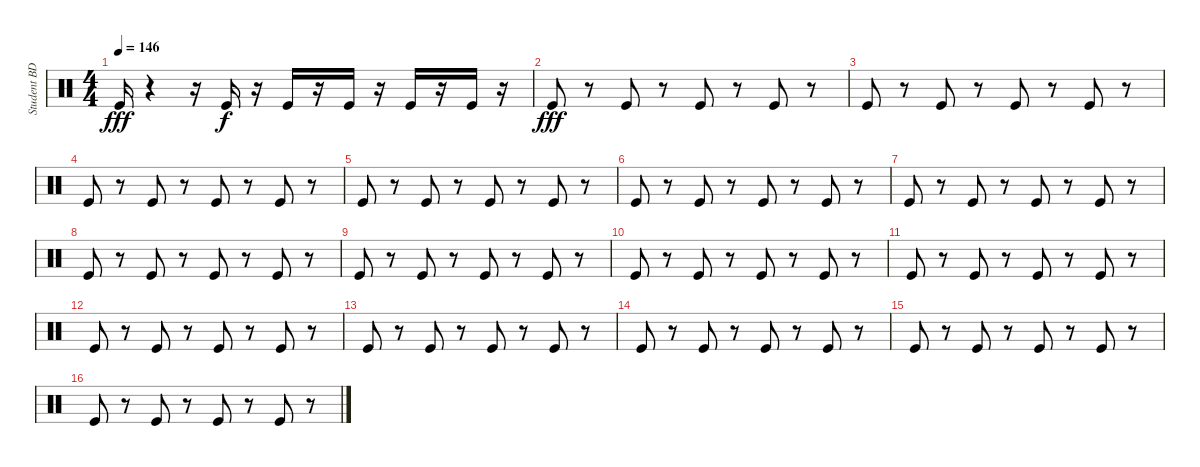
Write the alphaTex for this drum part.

\track ("Student BD" "Student BD") {instrument percussion}
\staff {score}
\articulation defaults
\ts (4 4)
\tempo 146
\clef neutral
\ks c "Kick (hit)".16{dy fff}
r.4 r.16 "Kick (hit)".16{dy f} r.16 "Kick (hit)".16 r.16 "Kick (hit)".16 r.16 "Kick (hit)".16 r.16 "Kick (hit)".16 r.16 |
"Kick (hit)".8{dy fff} r.8 "Kick (hit)".8 r.8 "Kick (hit)".8 r.8 "Kick (hit)".8 r.8 |
"Kick (hit)".8 r.8 "Kick (hit)".8 r.8 "Kick (hit)".8 r.8 "Kick (hit)".8 r.8 |
"Kick (hit)".8 r.8 "Kick (hit)".8 r.8 "Kick (hit)".8 r.8 "Kick (hit)".8 r.8 |
"Kick (hit)".8 r.8 "Kick (hit)".8 r.8 "Kick (hit)".8 r.8 "Kick (hit)".8 r.8 |
"Kick (hit)".8 r.8 "Kick (hit)".8 r.8 "Kick (hit)".8 r.8 "Kick (hit)".8 r.8 |
"Kick (hit)".8 r.8 "Kick (hit)".8 r.8 "Kick (hit)".8 r.8 "Kick (hit)".8 r.8 |
"Kick (hit)".8 r.8 "Kick (hit)".8 r.8 "Kick (hit)".8 r.8 "Kick (hit)".8 r.8 |
"Kick (hit)".8 r.8 "Kick (hit)".8 r.8 "Kick (hit)".8 r.8 "Kick (hit)".8 r.8 |
"Kick (hit)".8 r.8 "Kick (hit)".8 r.8 "Kick (hit)".8 r.8 "Kick (hit)".8 r.8 |
"Kick (hit)".8 r.8 "Kick (hit)".8 r.8 "Kick (hit)".8 r.8 "Kick (hit)".8 r.8 |
"Kick (hit)".8 r.8 "Kick (hit)".8 r.8 "Kick (hit)".8 r.8 "Kick (hit)".8 r.8 |
"Kick (hit)".8 r.8 "Kick (hit)".8 r.8 "Kick (hit)".8 r.8 "Kick (hit)".8 r.8 |
"Kick (hit)".8 r.8 "Kick (hit)".8 r.8 "Kick (hit)".8 r.8 "Kick (hit)".8 r.8 |
"Kick (hit)".8 r.8 "Kick (hit)".8 r.8 "Kick (hit)".8 r.8 "Kick (hit)".8 r.8 |
"Kick (hit)".8 r.8 "Kick (hit)".8 r.8 "Kick (hit)".8 r.8 "Kick (hit)".8 r.8
